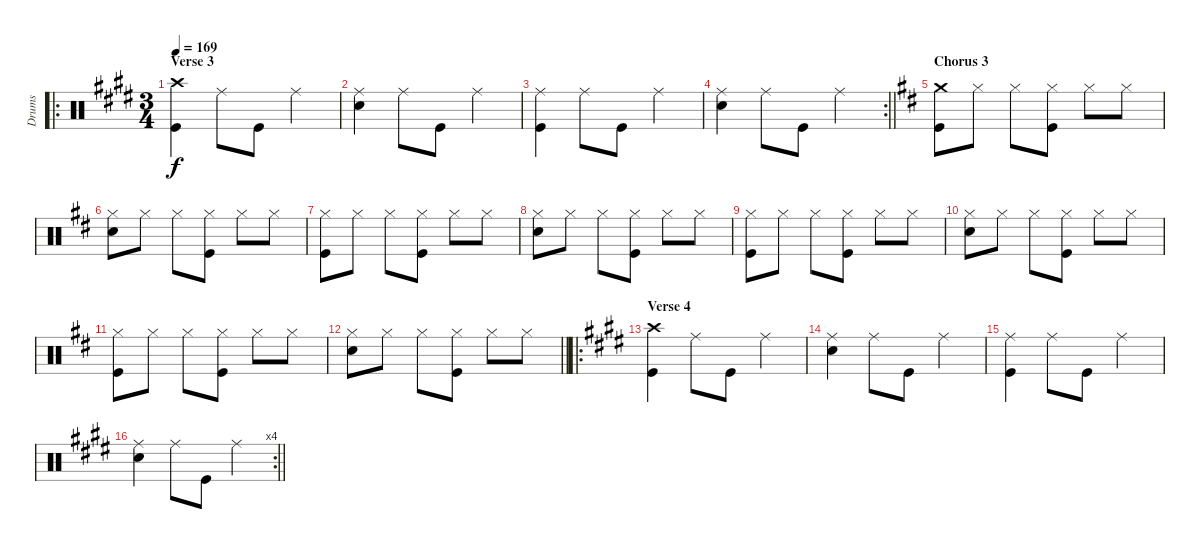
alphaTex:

\track ("Drums" "Drums") {instrument percussion}
\staff {score}
\articulation defaults
\ro
\ts (3 4)
\section ("" "Verse 3")
\tempo 169
\clef neutral
\ks e
("Crash high (hit)" "Kick (hit)").4{dy f} "Ride (middle)".8 "Kick (hit)".8 "Ride (middle)".4 |
("Ride (middle)" "Snare (hit) 2").4 "Ride (middle)".8 "Kick (hit)".8 "Ride (middle)".4 |
("Ride (middle)" "Kick (hit)").4 "Ride (middle)".8 "Kick (hit)".8 "Ride (middle)".4 |
\rc 2
\barLineRight lightlight
("Ride (middle)" "Snare (hit) 2").4 "Ride (middle)".8 "Kick (hit)".8 "Ride (middle)".4 |
\section ("" "Chorus 3")
\ks d
("Crash medium (hit)" "Kick (hit)").8 "Hi-Hat (closed)".8 "Hi-Hat (closed)".8 ("Hi-Hat (closed)" "Kick (hit)").8 "Hi-Hat (closed)".8 "Hi-Hat (closed)".8 |
("Hi-Hat (closed)" "Snare (hit) 2").8 "Hi-Hat (closed)".8 "Hi-Hat (closed)".8 ("Hi-Hat (closed)" "Kick (hit)").8 "Hi-Hat (closed)".8 "Hi-Hat (closed)".8 |
("Hi-Hat (closed)" "Kick (hit)").8 "Hi-Hat (closed)".8 "Hi-Hat (closed)".8 ("Hi-Hat (closed)" "Kick (hit)").8 "Hi-Hat (closed)".8 "Hi-Hat (closed)".8 |
("Hi-Hat (closed)" "Snare (hit) 2").8 "Hi-Hat (closed)".8 "Hi-Hat (closed)".8 ("Hi-Hat (closed)" "Kick (hit)").8 "Hi-Hat (closed)".8 "Hi-Hat (closed)".8 |
("Hi-Hat (closed)" "Kick (hit)").8 "Hi-Hat (closed)".8 "Hi-Hat (closed)".8 ("Hi-Hat (closed)" "Kick (hit)").8 "Hi-Hat (closed)".8 "Hi-Hat (closed)".8 |
("Hi-Hat (closed)" "Snare (hit) 2").8 "Hi-Hat (closed)".8 "Hi-Hat (closed)".8 ("Hi-Hat (closed)" "Kick (hit)").8 "Hi-Hat (closed)".8 "Hi-Hat (closed)".8 |
("Hi-Hat (closed)" "Kick (hit)").8 "Hi-Hat (closed)".8 "Hi-Hat (closed)".8 ("Hi-Hat (closed)" "Kick (hit)").8 "Hi-Hat (closed)".8 "Hi-Hat (closed)".8 |
\barLineRight lightlight
("Hi-Hat (closed)" "Snare (hit) 2").8 "Hi-Hat (closed)".8 "Hi-Hat (closed)".8 ("Hi-Hat (closed)" "Kick (hit)").8 "Hi-Hat (closed)".8 "Hi-Hat (closed)".8 |
\ro
\section ("" "Verse 4")
\ks e
("Crash high (hit)" "Kick (hit)").4 "Ride (middle)".8 "Kick (hit)".8 "Ride (middle)".4 |
("Ride (middle)" "Snare (hit) 2").4 "Ride (middle)".8 "Kick (hit)".8 "Ride (middle)".4 |
("Ride (middle)" "Kick (hit)").4 "Ride (middle)".8 "Kick (hit)".8 "Ride (middle)".4 |
\rc 4
\barLineRight lightlight
("Ride (middle)" "Snare (hit) 2").4 "Ride (middle)".8 "Kick (hit)".8 "Ride (middle)".4
